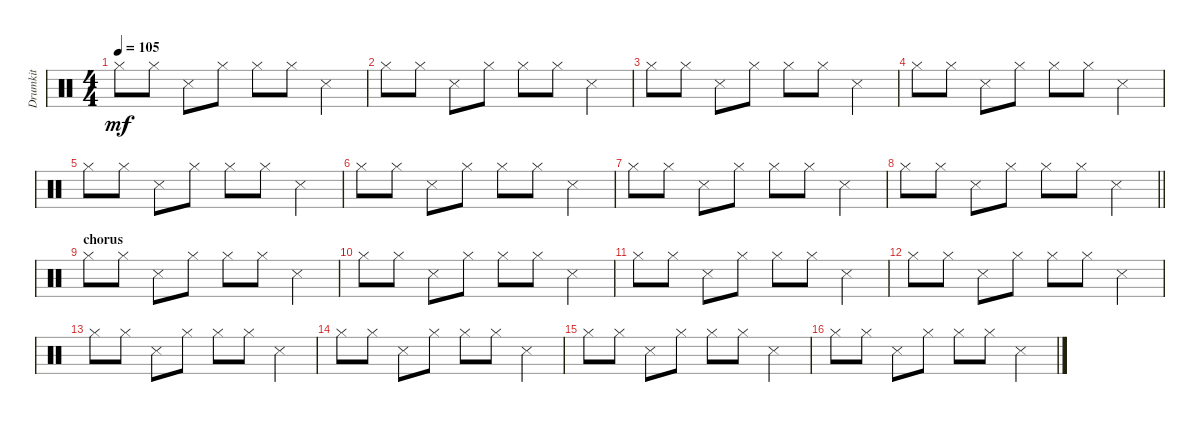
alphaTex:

\track ("Drumkit" "Drumkit") {instrument percussion}
\staff {score}
\articulation defaults
\ts (4 4)
\tempo 105
\clef neutral
\ks c "Hi-Hat (closed)".8{dy mf} "Hi-Hat (closed)".8 "Snare (side stick) 3".8 "Hi-Hat (closed)".8 "Hi-Hat (closed)".8 "Hi-Hat (closed)".8 "Snare (side stick) 3".4
|
"Hi-Hat (closed)".8 "Hi-Hat (closed)".8 "Snare (side stick) 3".8 "Hi-Hat (closed)".8 "Hi-Hat (closed)".8 "Hi-Hat (closed)".8 "Snare (side stick) 3".4 |
"Hi-Hat (closed)".8 "Hi-Hat (closed)".8 "Snare (side stick) 3".8 "Hi-Hat (closed)".8 "Hi-Hat (closed)".8 "Hi-Hat (closed)".8 "Snare (side stick) 3".4 |
"Hi-Hat (closed)".8 "Hi-Hat (closed)".8 "Snare (side stick) 3".8 "Hi-Hat (closed)".8 "Hi-Hat (closed)".8 "Hi-Hat (closed)".8 "Snare (side stick) 3".4 |
"Hi-Hat (closed)".8 "Hi-Hat (closed)".8 "Snare (side stick) 3".8 "Hi-Hat (closed)".8 "Hi-Hat (closed)".8 "Hi-Hat (closed)".8 "Snare (side stick) 3".4 |
"Hi-Hat (closed)".8 "Hi-Hat (closed)".8 "Snare (side stick) 3".8 "Hi-Hat (closed)".8 "Hi-Hat (closed)".8 "Hi-Hat (closed)".8 "Snare (side stick) 3".4 |
"Hi-Hat (closed)".8 "Hi-Hat (closed)".8 "Snare (side stick) 3".8 "Hi-Hat (closed)".8 "Hi-Hat (closed)".8 "Hi-Hat (closed)".8 "Snare (side stick) 3".4 |
\barLineRight lightlight "Hi-Hat (closed)".8 "Hi-Hat (closed)".8 "Snare (side stick) 3".8 "Hi-Hat (closed)".8 "Hi-Hat (closed)".8 "Hi-Hat (closed)".8 "Snare (side stick) 3".4
|
\section ("" "chorus")
"Hi-Hat (closed)".8 "Hi-Hat (closed)".8 "Snare (side stick) 3".8 "Hi-Hat (closed)".8 "Hi-Hat (closed)".8 "Hi-Hat (closed)".8 "Snare (side stick) 3".4 |
"Hi-Hat (closed)".8 "Hi-Hat (closed)".8 "Snare (side stick) 3".8 "Hi-Hat (closed)".8 "Hi-Hat (closed)".8 "Hi-Hat (closed)".8 "Snare (side stick) 3".4 |
"Hi-Hat (closed)".8 "Hi-Hat (closed)".8 "Snare (side stick) 3".8 "Hi-Hat (closed)".8 "Hi-Hat (closed)".8 "Hi-Hat (closed)".8 "Snare (side stick) 3".4 |
"Hi-Hat (closed)".8 "Hi-Hat (closed)".8 "Snare (side stick) 3".8 "Hi-Hat (closed)".8 "Hi-Hat (closed)".8 "Hi-Hat (closed)".8 "Snare (side stick) 3".4 |
"Hi-Hat (closed)".8 "Hi-Hat (closed)".8 "Snare (side stick) 3".8 "Hi-Hat (closed)".8 "Hi-Hat (closed)".8 "Hi-Hat (closed)".8 "Snare (side stick) 3".4 |
"Hi-Hat (closed)".8 "Hi-Hat (closed)".8 "Snare (side stick) 3".8 "Hi-Hat (closed)".8 "Hi-Hat (closed)".8 "Hi-Hat (closed)".8 "Snare (side stick) 3".4 |
"Hi-Hat (closed)".8 "Hi-Hat (closed)".8 "Snare (side stick) 3".8 "Hi-Hat (closed)".8 "Hi-Hat (closed)".8 "Hi-Hat (closed)".8 "Snare (side stick) 3".4 |
"Hi-Hat (closed)".8 "Hi-Hat (closed)".8 "Snare (side stick) 3".8 "Hi-Hat (closed)".8 "Hi-Hat (closed)".8 "Hi-Hat (closed)".8 "Snare (side stick) 3".4
